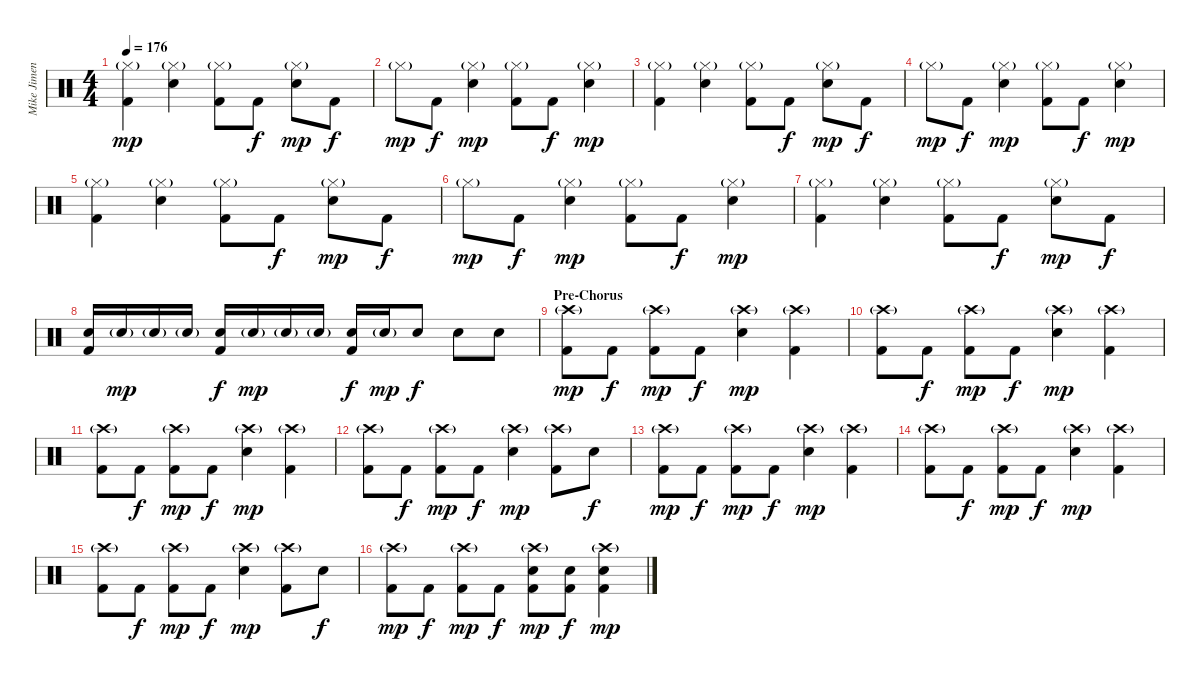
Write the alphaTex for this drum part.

\track ("Mike Jimenez" "Mike Jimen") {instrument percussion}
\staff {score}
\articulation defaults
\ts (4 4)
\tempo 176
\clef neutral
\ks c
("Hi-Hat (closed)"{g} "Kick (hit) 2").4{dy mp} ("Hi-Hat (closed)"{g} "Electric Snare (hit)").4 ("Hi-Hat (closed)"{g} "Kick (hit) 2").8 "Kick (hit) 2".8{dy f} ("Hi-Hat (closed)"{g} "Electric Snare (hit)").8{dy mp} "Kick (hit) 2".8{dy f} |
"Hi-Hat (closed)"{g}.8{dy mp} "Kick (hit) 2".8{dy f} ("Hi-Hat (closed)"{g} "Electric Snare (hit)").4{dy mp} ("Hi-Hat (closed)"{g} "Kick (hit) 2").8 "Kick (hit) 2".8{dy f} ("Hi-Hat (closed)"{g} "Electric Snare (hit)").4{dy mp} |
("Hi-Hat (closed)"{g} "Kick (hit) 2").4 ("Hi-Hat (closed)"{g} "Electric Snare (hit)").4 ("Hi-Hat (closed)"{g} "Kick (hit) 2").8 "Kick (hit) 2".8{dy f} ("Hi-Hat (closed)"{g} "Electric Snare (hit)").8{dy mp} "Kick (hit) 2".8{dy f} |
"Hi-Hat (closed)"{g}.8{dy mp} "Kick (hit) 2".8{dy f} ("Hi-Hat (closed)"{g} "Electric Snare (hit)").4{dy mp} ("Hi-Hat (closed)"{g} "Kick (hit) 2").8 "Kick (hit) 2".8{dy f} ("Hi-Hat (closed)"{g} "Electric Snare (hit)").4{dy mp} |
("Hi-Hat (closed)"{g} "Kick (hit) 2").4 ("Hi-Hat (closed)"{g} "Electric Snare (hit)").4 ("Hi-Hat (closed)"{g} "Kick (hit) 2").8 "Kick (hit) 2".8{dy f} ("Hi-Hat (closed)"{g} "Electric Snare (hit)").8{dy mp} "Kick (hit) 2".8{dy f} |
"Hi-Hat (closed)"{g}.8{dy mp} "Kick (hit) 2".8{dy f} ("Hi-Hat (closed)"{g} "Electric Snare (hit)").4{dy mp} ("Hi-Hat (closed)"{g} "Kick (hit) 2").8 "Kick (hit) 2".8{dy f} ("Hi-Hat (closed)"{g} "Electric Snare (hit)").4{dy mp} |
("Hi-Hat (closed)"{g} "Kick (hit) 2").4 ("Hi-Hat (closed)"{g} "Electric Snare (hit)").4 ("Hi-Hat (closed)"{g} "Kick (hit) 2").8 "Kick (hit) 2".8{dy f} ("Hi-Hat (closed)"{g} "Electric Snare (hit)").8{dy mp} "Kick (hit) 2".8{dy f} |
("Electric Snare (hit)" "Kick (hit) 2").16 "Electric Snare (hit)"{g}.16{dy mp} "Electric Snare (hit)"{g}.16 "Electric Snare (hit)"{g}.16 ("Electric Snare (hit)" "Kick (hit) 2").16{dy f} "Electric Snare (hit)"{g}.16{dy mp} "Electric Snare (hit)"{g}.16 "Electric Snare (hit)"{g}.16 ("Electric Snare (hit)" "Kick (hit) 2").16{dy f} "Electric Snare (hit)"{g}.16{dy mp} "Electric Snare (hit)".8{dy f} "Electric Snare (hit)".8 "Electric Snare (hit)".8 |
\section ("" "Pre-Chorus")
("Crash high (hit)"{g} "Kick (hit) 2").8{dy mp} "Kick (hit) 2".8{dy f} ("Crash high (hit)"{g} "Kick (hit) 2").8{dy mp} "Kick (hit) 2".8{dy f} ("Crash high (hit)"{g} "Electric Snare (hit)").4{dy mp} ("Crash high (hit)"{g} "Kick (hit) 2").4 |
("Crash high (hit)"{g} "Kick (hit) 2").8 "Kick (hit) 2".8{dy f} ("Crash high (hit)"{g} "Kick (hit) 2").8{dy mp} "Kick (hit) 2".8{dy f} ("Crash high (hit)"{g} "Electric Snare (hit)").4{dy mp} ("Crash high (hit)"{g} "Kick (hit) 2").4 |
("Crash high (hit)"{g} "Kick (hit) 2").8 "Kick (hit) 2".8{dy f} ("Crash high (hit)"{g} "Kick (hit) 2").8{dy mp} "Kick (hit) 2".8{dy f} ("Crash high (hit)"{g} "Electric Snare (hit)").4{dy mp} ("Crash high (hit)"{g} "Kick (hit) 2").4 |
("Crash high (hit)"{g} "Kick (hit) 2").8 "Kick (hit) 2".8{dy f} ("Crash high (hit)"{g} "Kick (hit) 2").8{dy mp} "Kick (hit) 2".8{dy f} ("Crash high (hit)"{g} "Electric Snare (hit)").4{dy mp} ("Crash high (hit)"{g} "Kick (hit) 2").8 "Electric Snare (hit)".8{dy f} |
("Crash high (hit)"{g} "Kick (hit) 2").8{dy mp} "Kick (hit) 2".8{dy f} ("Crash high (hit)"{g} "Kick (hit) 2").8{dy mp} "Kick (hit) 2".8{dy f} ("Crash high (hit)"{g} "Electric Snare (hit)").4{dy mp} ("Crash high (hit)"{g} "Kick (hit) 2").4 |
("Crash high (hit)"{g} "Kick (hit) 2").8 "Kick (hit) 2".8{dy f} ("Crash high (hit)"{g} "Kick (hit) 2").8{dy mp} "Kick (hit) 2".8{dy f} ("Crash high (hit)"{g} "Electric Snare (hit)").4{dy mp} ("Crash high (hit)"{g} "Kick (hit) 2").4 |
("Crash high (hit)"{g} "Kick (hit) 2").8 "Kick (hit) 2".8{dy f} ("Crash high (hit)"{g} "Kick (hit) 2").8{dy mp} "Kick (hit) 2".8{dy f} ("Crash high (hit)"{g} "Electric Snare (hit)").4{dy mp} ("Crash high (hit)"{g} "Kick (hit) 2").8 "Electric Snare (hit)".8{dy f} |
("Crash high (hit)"{g} "Kick (hit) 2").8{dy mp} "Kick (hit) 2".8{dy f} ("Crash high (hit)"{g} "Kick (hit) 2").8{dy mp} "Kick (hit) 2".8{dy f} ("Crash high (hit)"{g} "Electric Snare (hit)" "Kick (hit) 2").8{dy mp} ("Electric Snare (hit)" "Kick (hit) 2").8{dy f} ("Crash high (hit)"{g} "Electric Snare (hit)" "Kick (hit) 2").4{dy mp}
